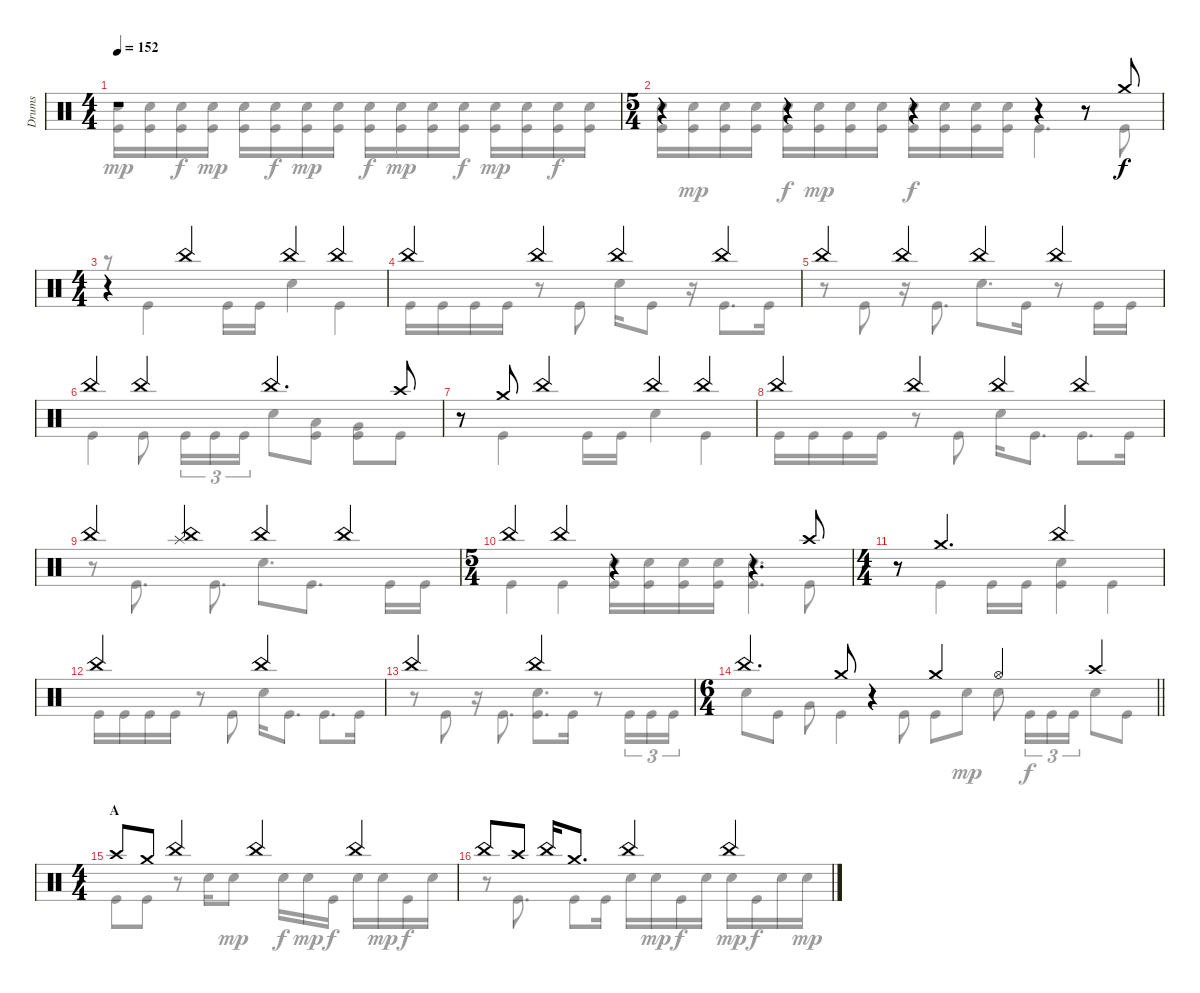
\track ("Drums" "Drums") {instrument percussion}
\staff {score}
\articulation defaults
\voice
\ts (4 4)
\tempo 152
\clef neutral
\ks c
r.1{dy f} |
\ts (5 4)
r.4 r.4 r.4 r.4 r.8 "Crash medium (hit)".8 |
\ts (4 4)
r.4 "China (hit)".4 "China (hit)".4 "China (hit)".4 |
"China (hit)".4 "China (hit)".4 "China (hit)".4 "China (hit)".4 |
"China (hit)".4 "China (hit)".4 "China (hit)".4 "China (hit)".4 |
"China (hit)".4 "China (hit)".4 "China (hit)".4{d} "Crash high (hit)".8 |
r.8 "Crash medium (hit)".8 "China (hit)".4 "China (hit)".4 "China (hit)".4 |
"China (hit)".4 "China (hit)".4 "China (hit)".4 "China (hit)".4 |
"China (hit)".4 ("China (hit)" "Splash (hit)").4 "China (hit)".4 "China (hit)".4 |
\ts (5 4)
"China (hit)".4 "China (hit)".4 r.4 r.4{d} "Crash high (hit)".8 |
\ts (4 4)
r.8 "Crash medium (hit)".4{d} "China (hit)".2 |
"China (hit)".2 "China (hit)".2 |
"China (hit)".2 "China (hit)".2 |
\ts (6 4)
\barLineRight lightlight "China (hit)".4{d} "Crash medium (hit)".8
r.4 "Crash medium (hit)".4 "Hi-Hat (open)".4 "Crash high (hit)".4 |
\ts (4 4)
\section ("" "A")
"Crash high (hit)".8 "Crash medium (hit)".8 "China (hit)".4 "China (hit)".4 "China (hit)".4 |
"China (hit)".8 "Crash high (hit)".8 "China (hit)".16 "Crash medium (hit)".8{d} "China (hit)".4 "China (hit)".4
\voice
\clef neutral
\ottava regular
\simile none
\ks c
("Snare (hit) 2" "Kick (hit)").16{dy mp} ("Snare (hit) 2" "Kick (hit)").16 ("Snare (hit) 2" "Kick (hit)").16{dy f} ("Snare (hit) 2" "Kick (hit)").16{dy mp} ("Snare (hit) 2" "Kick (hit)").16 ("Snare (hit) 2" "Kick (hit)").16{dy f} ("Snare (hit) 2" "Kick (hit)").16{dy mp} ("Snare (hit) 2" "Kick (hit)").16 ("Snare (hit) 2" "Kick (hit)").16{dy f} ("Snare (hit) 2" "Kick (hit)").16{dy mp} ("Snare (hit) 2" "Kick (hit)").16 ("Snare (hit) 2" "Kick (hit)").16{dy f} ("Snare (hit) 2" "Kick (hit)").16{dy mp} ("Snare (hit) 2" "Kick (hit)").16 ("Snare (hit) 2" "Kick (hit)").16{dy f} ("Snare (hit) 2" "Kick (hit)").16 |
("Snare (hit) 2" "Kick (hit)").16 ("Snare (hit) 2" "Kick (hit)").16{dy mp} ("Snare (hit) 2" "Kick (hit)").16 ("Snare (hit) 2" "Kick (hit)").16 ("Snare (hit) 2" "Kick (hit)").16{dy f} ("Snare (hit) 2" "Kick (hit)").16{dy mp} ("Snare (hit) 2" "Kick (hit)").16 ("Snare (hit) 2" "Kick (hit)").16 ("Snare (hit) 2" "Kick (hit)").16{dy f} ("Snare (hit) 2" "Kick (hit)").16 ("Snare (hit) 2" "Kick (hit)").16 ("Snare (hit) 2" "Kick (hit)").16 "Kick (hit)".4{d} "Kick (hit)".8 |
r.8 "Kick (hit)".4 "Kick (hit)".16 "Kick (hit)".16 "Snare (hit) 2".4 "Kick (hit)".4 |
"Kick (hit)".16 "Kick (hit)".16 "Kick (hit)".16 "Kick (hit)".16 r.8 "Kick (hit)".8 "Snare (hit) 2".16 "Kick (hit)".8 r.16 "Kick (hit)".8{d} "Kick (hit)".16 |
r.8 "Kick (hit)".8 r.16 "Kick (hit)".8{d} "Snare (hit) 2".8{d} "Kick (hit)".16 r.8 "Kick (hit)".16 "Kick (hit)".16 |
"Kick (hit)".4 "Kick (hit)".8 "Kick (hit)".16{tu (3 2)} "Kick (hit)".16{tu (3 2)} "Kick (hit)".16{tu (3 2)} "Snare (hit) 2".8 ("Low Tom (hit)" "Kick (hit)").8 ("Very Low Tom (hit)" "Kick (hit)").8 "Kick (hit)".8 |
r.8 "Kick (hit)".4 "Kick (hit)".16 "Kick (hit)".16 "Snare (hit) 2".4 "Kick (hit)".4 |
"Kick (hit)".16 "Kick (hit)".16 "Kick (hit)".16 "Kick (hit)".16 r.8 "Kick (hit)".8 "Snare (hit) 2".16 "Kick (hit)".8{d} "Kick (hit)".8{d} "Kick (hit)".16 |
r.8 "Kick (hit)".8{d} "Kick (hit)".8{d} "Snare (hit) 2".8{d} "Kick (hit)".8{d} "Kick (hit)".16 "Kick (hit)".16 |
"Kick (hit)".4 "Kick (hit)".4 ("Snare (hit) 2" "Kick (hit)").16 ("Snare (hit) 2" "Kick (hit)").16 ("Snare (hit) 2" "Kick (hit)").16 ("Snare (hit) 2" "Kick (hit)").16 ("Snare (hit) 2" "Kick (hit)").4{d} "Kick (hit)".8 |
r.8 "Kick (hit)".4 "Kick (hit)".16 "Kick (hit)".16 ("Snare (hit) 2" "Kick (hit)").4 "Kick (hit)".4 |
"Kick (hit)".16 "Kick (hit)".16 "Kick (hit)".16 "Kick (hit)".16 r.8 "Kick (hit)".8 "Snare (hit) 2".16 "Kick (hit)".8{d} "Kick (hit)".8{d} "Kick (hit)".16 |
r.8 "Kick (hit)".8 r.16 "Kick (hit)".8{d} ("Snare (hit) 2" "Kick (hit)").8{d} "Kick (hit)".16 r.8 "Kick (hit)".16{tu (3 2)} "Kick (hit)".16{tu (3 2)} "Kick (hit)".16{tu (3 2)} |
\barLineRight lightlight "Snare (hit) 2".8 "Kick (hit)".8 "Very Low Tom (hit)".8 "Kick (hit)".4 "Kick (hit)".8 "Kick (hit)".8 "Snare (hit) 2".8{dy mp} "Snare (hit) 2".8 "Kick (hit)".16{tu (3 2) dy f} "Kick (hit)".16{tu (3 2)} "Kick (hit)".16{tu (3 2)} "Snare (hit) 2".8 "Kick (hit)".8
|
"Kick (hit)".8 "Kick (hit)".8 r.8 "Snare (hit) 2".16 "Snare (hit) 2".8{dy mp} "Snare (hit) 2".16{dy f} "Snare (hit) 2".16{dy mp} "Kick (hit)".16{dy f} "Snare (hit) 2".16 "Snare (hit) 2".16{dy mp} "Kick (hit)".16{dy f} "Snare (hit) 2".16 |
r.8 "Kick (hit)".8{d} "Kick (hit)".8 "Kick (hit)".16 "Snare (hit) 2".16 "Snare (hit) 2".16{dy mp} "Kick (hit)".16{dy f} "Snare (hit) 2".16 "Snare (hit) 2".16{dy mp} "Kick (hit)".16{dy f} "Snare (hit) 2".16 "Snare (hit) 2".16{dy mp}
